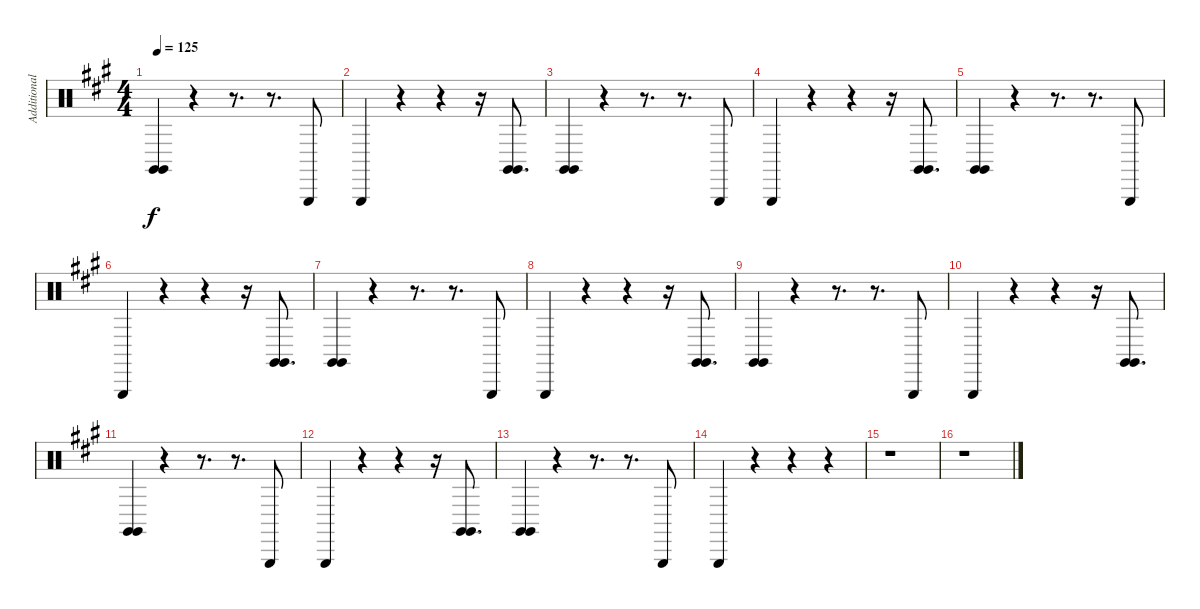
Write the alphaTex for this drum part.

\track ("Additional Percussion II" "Additional") {instrument percussion}
\staff {score}
\articulation defaults
\ts (4 4)
\tempo 125
\clef neutral
\ks a
("Claves (hit)" "Claves (hit)").4{dy f} r.4 r.8{d} r.8{d} "Triangle (hit)".8 |
"Triangle (hit)".4 r.4 r.4 r.16 ("Claves (hit)" "Claves (hit)").8{d} |
("Claves (hit)" "Claves (hit)").4 r.4 r.8{d} r.8{d} "Triangle (hit)".8 |
"Triangle (hit)".4 r.4 r.4 r.16 ("Claves (hit)" "Claves (hit)").8{d} |
("Claves (hit)" "Claves (hit)").4 r.4 r.8{d} r.8{d} "Triangle (hit)".8 |
"Triangle (hit)".4 r.4 r.4 r.16 ("Claves (hit)" "Claves (hit)").8{d} |
("Claves (hit)" "Claves (hit)").4 r.4 r.8{d} r.8{d} "Triangle (hit)".8 |
"Triangle (hit)".4 r.4 r.4 r.16 ("Claves (hit)" "Claves (hit)").8{d} |
("Claves (hit)" "Claves (hit)").4 r.4 r.8{d} r.8{d} "Triangle (hit)".8 |
"Triangle (hit)".4 r.4 r.4 r.16 ("Claves (hit)" "Claves (hit)").8{d} |
("Claves (hit)" "Claves (hit)").4 r.4 r.8{d} r.8{d} "Triangle (hit)".8 |
"Triangle (hit)".4 r.4 r.4 r.16 ("Claves (hit)" "Claves (hit)").8{d} |
("Claves (hit)" "Claves (hit)").4 r.4 r.8{d} r.8{d} "Triangle (hit)".8 |
"Triangle (hit)".4 r.4 r.4 r.4 |
r.1 |
r.1
